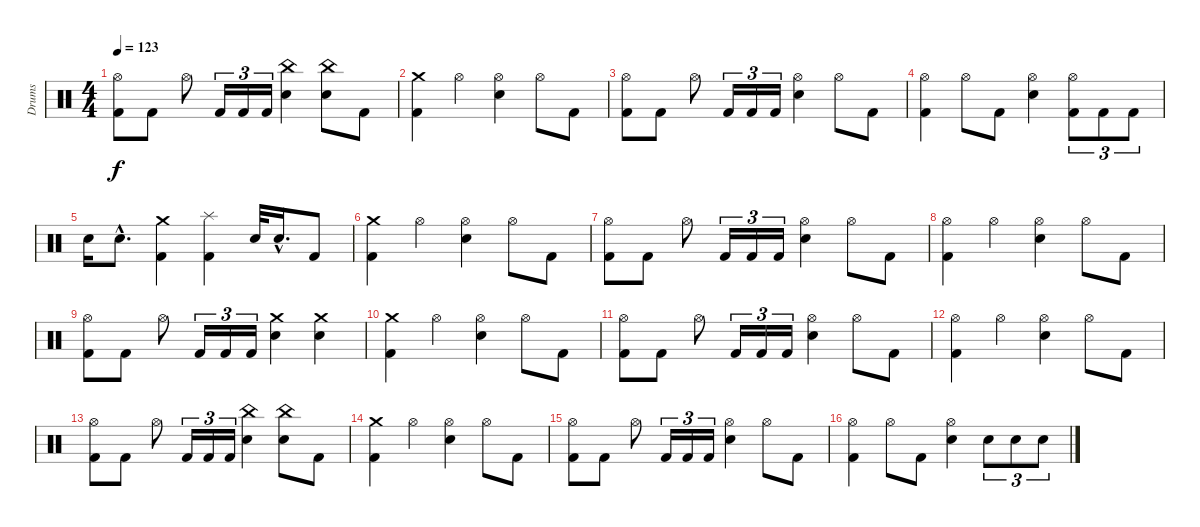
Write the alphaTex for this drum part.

\track ("Drums" "Drums") {instrument percussion}
\staff {score}
\articulation defaults
\ts (4 4)
\tempo 123
\clef neutral
\ks c
("Kick (hit) 2" "Hi-Hat (open)").8{dy f} "Kick (hit) 2".8 "Hi-Hat (open)".8 "Kick (hit) 2".16{tu (3 2)} "Kick (hit) 2".16{tu (3 2)} "Kick (hit) 2".16{tu (3 2)} ("China (hit)" "Electric Snare (hit)").4 ("China (hit)" "Electric Snare (hit)").8 "Kick (hit) 2".8 |
("Kick (hit) 2" "Crash medium (hit)").4 "Hi-Hat (open)".4 ("Electric Snare (hit)" "Hi-Hat (open)").4 "Hi-Hat (open)".8 "Kick (hit) 2".8 |
("Kick (hit) 2" "Hi-Hat (open)").8 "Kick (hit) 2".8 "Hi-Hat (open)".8 "Kick (hit) 2".16{tu (3 2)} "Kick (hit) 2".16{tu (3 2)} "Kick (hit) 2".16{tu (3 2)} ("Electric Snare (hit)" "Hi-Hat (open)").4 "Hi-Hat (open)".8 "Kick (hit) 2".8 |
("Kick (hit) 2" "Hi-Hat (open)").4 "Hi-Hat (open)".8 "Kick (hit) 2".8 ("Electric Snare (hit)" "Hi-Hat (open)").4 ("Kick (hit) 2" "Hi-Hat (open)").8{tu (3 2)} "Kick (hit) 2".8{tu (3 2)} "Kick (hit) 2".8{tu (3 2)} |
"Electric Snare (hit)".16 "Electric Snare (hit)"{hac}.8{d} ("Crash medium (hit)" "Kick (hit) 2").4 ("Splash (hit)" "Kick (hit) 2").4 "Electric Snare (hit)".32 "Electric Snare (hit)"{hac}.16{d} "Kick (hit) 2".8 |
("Kick (hit) 2" "Crash medium (hit)").4 "Hi-Hat (open)".4 ("Electric Snare (hit)" "Hi-Hat (open)").4 "Hi-Hat (open)".8 "Kick (hit) 2".8 |
("Kick (hit) 2" "Hi-Hat (open)").8 "Kick (hit) 2".8 "Hi-Hat (open)".8 "Kick (hit) 2".16{tu (3 2)} "Kick (hit) 2".16{tu (3 2)} "Kick (hit) 2".16{tu (3 2)} ("Electric Snare (hit)" "Hi-Hat (open)").4 "Hi-Hat (open)".8 "Kick (hit) 2".8 |
("Hi-Hat (open)" "Kick (hit) 2").4 "Hi-Hat (open)".4 ("Electric Snare (hit)" "Hi-Hat (open)").4 "Hi-Hat (open)".8 "Kick (hit) 2".8 |
("Kick (hit) 2" "Hi-Hat (open)").8 "Kick (hit) 2".8 "Hi-Hat (open)".8 "Kick (hit) 2".16{tu (3 2)} "Kick (hit) 2".16{tu (3 2)} "Kick (hit) 2".16{tu (3 2)} ("Crash medium (hit)" "Electric Snare (hit)").4 ("Crash medium (hit)" "Electric Snare (hit)").4 |
("Kick (hit) 2" "Crash medium (hit)").4 "Hi-Hat (open)".4 ("Electric Snare (hit)" "Hi-Hat (open)").4 "Hi-Hat (open)".8 "Kick (hit) 2".8 |
("Kick (hit) 2" "Hi-Hat (open)").8 "Kick (hit) 2".8 "Hi-Hat (open)".8 "Kick (hit) 2".16{tu (3 2)} "Kick (hit) 2".16{tu (3 2)} "Kick (hit) 2".16{tu (3 2)} ("Electric Snare (hit)" "Hi-Hat (open)").4 "Hi-Hat (open)".8 "Kick (hit) 2".8 |
("Hi-Hat (open)" "Kick (hit) 2").4 "Hi-Hat (open)".4 ("Electric Snare (hit)" "Hi-Hat (open)").4 "Hi-Hat (open)".8 "Kick (hit) 2".8 |
("Kick (hit) 2" "Hi-Hat (open)").8 "Kick (hit) 2".8 "Hi-Hat (open)".8 "Kick (hit) 2".16{tu (3 2)} "Kick (hit) 2".16{tu (3 2)} "Kick (hit) 2".16{tu (3 2)} ("China (hit)" "Electric Snare (hit)").4 ("China (hit)" "Electric Snare (hit)").8 "Kick (hit) 2".8 |
("Kick (hit) 2" "Crash medium (hit)").4 "Hi-Hat (open)".4 ("Electric Snare (hit)" "Hi-Hat (open)").4 "Hi-Hat (open)".8 "Kick (hit) 2".8 |
("Kick (hit) 2" "Hi-Hat (open)").8 "Kick (hit) 2".8 "Hi-Hat (open)".8 "Kick (hit) 2".16{tu (3 2)} "Kick (hit) 2".16{tu (3 2)} "Kick (hit) 2".16{tu (3 2)} ("Electric Snare (hit)" "Hi-Hat (open)").4 "Hi-Hat (open)".8 "Kick (hit) 2".8 |
("Kick (hit) 2" "Hi-Hat (open)").4 "Hi-Hat (open)".8 "Kick (hit) 2".8 ("Electric Snare (hit)" "Hi-Hat (open)").4 "Electric Snare (hit)".8{tu (3 2)} "Electric Snare (hit)".8{tu (3 2)} "Electric Snare (hit)".8{tu (3 2)}
